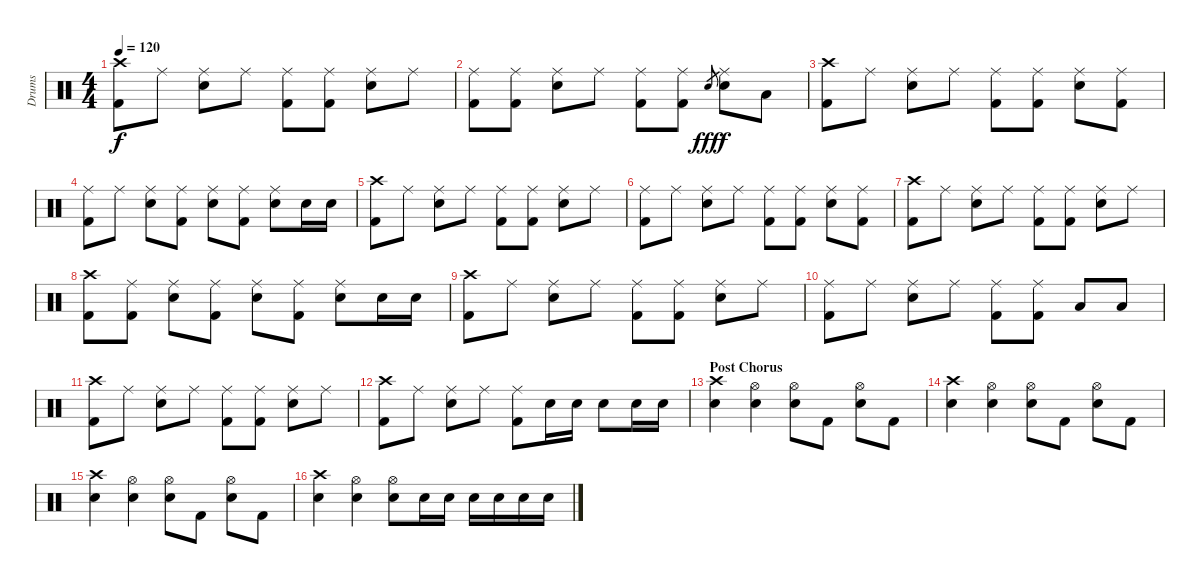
\track ("Drums" "Drums") {instrument percussion}
\staff {score}
\articulation defaults
\ts (4 4)
\tempo 120
\clef neutral
\ks c
("Crash high (hit)" "Kick (hit) 2").8{dy f} "Ride (middle)".8 ("Ride (middle)" "Electric Snare (hit)").8 "Ride (middle)".8 ("Ride (middle)" "Kick (hit) 2").8 ("Ride (middle)" "Kick (hit) 2").8 ("Ride (middle)" "Electric Snare (hit)").8 "Ride (middle)".8 |
("Ride (middle)" "Kick (hit) 2").8 ("Ride (middle)" "Kick (hit) 2").8 ("Ride (middle)" "Electric Snare (hit)").8 "Ride (middle)".8 ("Ride (middle)" "Kick (hit) 2").8 ("Ride (middle)" "Kick (hit) 2").8 "Electric Snare (hit)".8{gr dy fff} ("Ride (middle)" "Electric Snare (hit)").8{dy f} "Low Tom (hit)".8 |
("Crash high (hit)" "Kick (hit) 2").8 "Ride (middle)".8 ("Ride (middle)" "Electric Snare (hit)").8 "Ride (middle)".8 ("Ride (middle)" "Kick (hit) 2").8 ("Ride (middle)" "Kick (hit) 2").8 ("Ride (middle)" "Electric Snare (hit)").8 ("Ride (middle)" "Kick (hit) 2").8 |
("Ride (middle)" "Kick (hit) 2").8 "Ride (middle)".8 ("Ride (middle)" "Electric Snare (hit)").8 ("Ride (middle)" "Kick (hit) 2").8 ("Ride (middle)" "Electric Snare (hit)").8 ("Ride (middle)" "Kick (hit) 2").8 ("Ride (middle)" "Electric Snare (hit)").8 "Electric Snare (hit)".16 "Electric Snare (hit)".16 |
("Crash high (hit)" "Kick (hit) 2").8 "Ride (middle)".8 ("Ride (middle)" "Electric Snare (hit)").8 "Ride (middle)".8 ("Ride (middle)" "Kick (hit) 2").8 ("Ride (middle)" "Kick (hit) 2").8 ("Ride (middle)" "Electric Snare (hit)").8 "Ride (middle)".8 |
("Ride (middle)" "Kick (hit) 2").8 "Ride (middle)".8 ("Ride (middle)" "Electric Snare (hit)").8 "Ride (middle)".8 ("Ride (middle)" "Kick (hit) 2").8 ("Ride (middle)" "Kick (hit) 2").8 ("Ride (middle)" "Electric Snare (hit)").8 ("Ride (middle)" "Kick (hit) 2").8 |
("Crash high (hit)" "Kick (hit) 2").8 "Ride (middle)".8 ("Ride (middle)" "Electric Snare (hit)").8 "Ride (middle)".8 ("Ride (middle)" "Kick (hit) 2").8 ("Ride (middle)" "Kick (hit) 2").8 ("Ride (middle)" "Electric Snare (hit)").8 "Ride (middle)".8 |
("Crash high (hit)" "Kick (hit) 2").8 ("Ride (middle)" "Kick (hit) 2").8 ("Ride (middle)" "Electric Snare (hit)").8 ("Ride (middle)" "Kick (hit) 2").8 ("Ride (middle)" "Electric Snare (hit)").8 ("Ride (middle)" "Kick (hit) 2").8 ("Ride (middle)" "Electric Snare (hit)").8 "Electric Snare (hit)".16 "Electric Snare (hit)".16 |
("Crash high (hit)" "Kick (hit) 2").8 "Ride (middle)".8 ("Ride (middle)" "Electric Snare (hit)").8 "Ride (middle)".8 ("Ride (middle)" "Kick (hit) 2").8 ("Ride (middle)" "Kick (hit) 2").8 ("Ride (middle)" "Electric Snare (hit)").8 "Ride (middle)".8 |
("Ride (middle)" "Kick (hit) 2").8 "Ride (middle)".8 ("Ride (middle)" "Electric Snare (hit)").8 "Ride (middle)".8 ("Ride (middle)" "Kick (hit) 2").8 ("Ride (middle)" "Kick (hit) 2").8 "Low Floor Tom (hit)".8 "Low Floor Tom (hit)".8 |
("Crash high (hit)" "Kick (hit) 2").8 "Ride (middle)".8 ("Ride (middle)" "Electric Snare (hit)").8 "Ride (middle)".8 ("Ride (middle)" "Kick (hit) 2").8 ("Ride (middle)" "Kick (hit) 2").8 ("Ride (middle)" "Electric Snare (hit)").8 "Ride (middle)".8 |
("Crash high (hit)" "Kick (hit) 2").8 "Ride (middle)".8 ("Ride (middle)" "Electric Snare (hit)").8 "Ride (middle)".8 ("Ride (middle)" "Kick (hit) 2").8 "Electric Snare (hit)".16 "Electric Snare (hit)".16 "Electric Snare (hit)".8 "Electric Snare (hit)".16 "Electric Snare (hit)".16 |
\section ("" "Post Chorus")
("Crash high (hit)" "Electric Snare (hit)").4 ("Hi-Hat (open)" "Electric Snare (hit)").4 ("Hi-Hat (open)" "Electric Snare (hit)").8 "Kick (hit) 2".8 ("Hi-Hat (open)" "Electric Snare (hit)").8 "Kick (hit) 2".8 |
("Crash high (hit)" "Electric Snare (hit)").4 ("Hi-Hat (open)" "Electric Snare (hit)").4 ("Hi-Hat (open)" "Electric Snare (hit)").8 "Kick (hit) 2".8 ("Hi-Hat (open)" "Electric Snare (hit)").8 "Kick (hit) 2".8 |
("Crash high (hit)" "Electric Snare (hit)").4 ("Hi-Hat (open)" "Electric Snare (hit)").4 ("Hi-Hat (open)" "Electric Snare (hit)").8 "Kick (hit) 2".8 ("Hi-Hat (open)" "Electric Snare (hit)").8 "Kick (hit) 2".8 |
("Crash high (hit)" "Electric Snare (hit)").4 ("Hi-Hat (open)" "Electric Snare (hit)").4 ("Hi-Hat (open)" "Electric Snare (hit)").8 "Electric Snare (hit)".16 "Electric Snare (hit)".16 "Electric Snare (hit)".16 "Electric Snare (hit)".16 "Electric Snare (hit)".16 "Electric Snare (hit)".16
